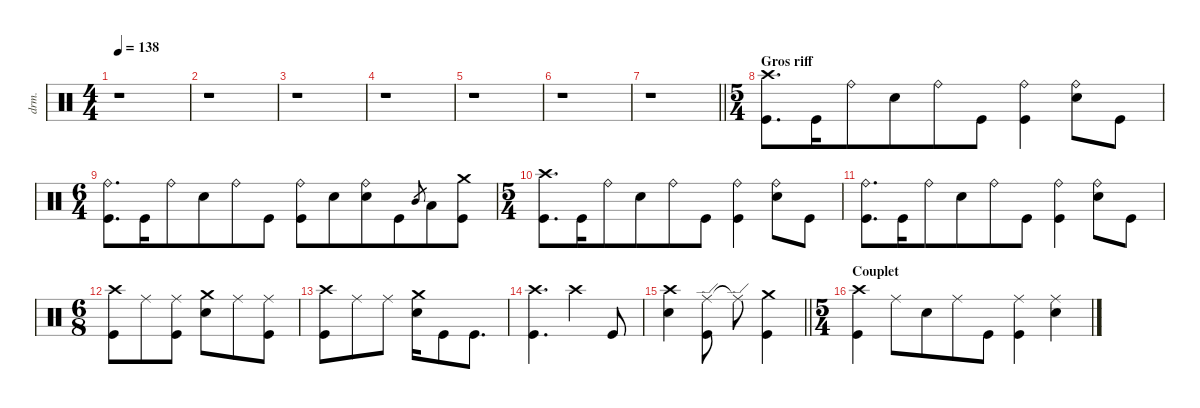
\defaultSystemsLayout 4
\hideDynamics
\bracketExtendMode nobrackets
\track ("Percussions" "drm.") {instrument percussion}
\staff {score}
\articulation defaults
\ts (4 4)
\tempo 138
\clef neutral
\ks aminor
r.1{dy f} |
r.1 |
r.1 |
r.1 |
r.1 |
r.1 |
\barLineRight lightlight
r.1 |
\ts (5 4)
\beaming (8 6 4)
\section ("" "Gros riff")
("Crash high (hit)" "Kick (hit)").8{d} "Kick (hit)".16 "Ride (bell)".8 "Snare (hit) 2".8 "Ride (bell)".8 "Kick (hit)".8 ("Kick (hit)" "Ride (bell)").4 ("Ride (bell)" "Snare (hit) 2").8 "Kick (hit)".8 |
\ts (6 4)
\beaming (8 6 6)
("Ride (bell)" "Kick (hit)").8{d} "Kick (hit)".16 "Ride (bell)".8 "Snare (hit) 2".8 "Ride (bell)".8 "Kick (hit)".8 ("Kick (hit)" "Ride (bell)").8 "Snare (hit) 2".8 ("Ride (bell)" "Snare (hit) 2").8 "Kick (hit)".8 "Mid Tom (hit)".8{gr} "Low Tom (hit)".8 ("Crash medium (hit)" "Kick (hit)").8 |
\ts (5 4)
\beaming (8 6 4)
("Crash high (hit)" "Kick (hit)").8{d} "Kick (hit)".16 "Ride (bell)".8 "Snare (hit) 2".8 "Ride (bell)".8 "Kick (hit)".8 ("Kick (hit)" "Ride (bell)").4 ("Ride (bell)" "Snare (hit) 2").8 "Kick (hit)".8 |
("Ride (bell)" "Kick (hit)").8{d} "Kick (hit)".16 "Ride (bell)".8 "Snare (hit) 2".8 "Ride (bell)".8 "Kick (hit)".8 ("Kick (hit)" "Ride (bell)").4 ("Ride (bell)" "Snare (hit) 2").8 "Kick (hit)".8 |
\ts (6 8)
\beaming (8 3 3)
("Crash high (hit)" "Kick (hit)").8 "Ride (middle)".8 ("Ride (middle)" "Kick (hit)").8 ("Crash medium (hit)" "Snare (hit) 2").8 "Ride (middle)".8 ("Ride (middle)" "Kick (hit)").8 |
("Crash high (hit)" "Kick (hit)").8 "Ride (middle)".8 "Ride (middle)".8 ("Crash medium (hit)" "Snare (hit) 2").16 "Kick (hit)".8 "Kick (hit)".8{d} |
("Crash high (hit)" "Kick (hit)").4{d} "Crash high (hit)".4 "Kick (hit)".8 |
\barLineRight lightlight
("Crash high (hit)" "Snare (hit) 2").4 ("Ride (edge)" "Kick (hit)").8 "Ride (edge)"{t}.8 ("Crash medium (hit)" "Kick (hit)").4 |
\ts (5 4)
\beaming (8 6 4)
\section ("" "Couplet")
("Crash high (hit)" "Kick (hit)").4 "Ride (middle)".8 "Snare (hit) 2".8 "Ride (middle)".8 "Kick (hit)".8 ("Ride (middle)" "Kick (hit)").4 ("Ride (middle)" "Snare (hit) 2").4
